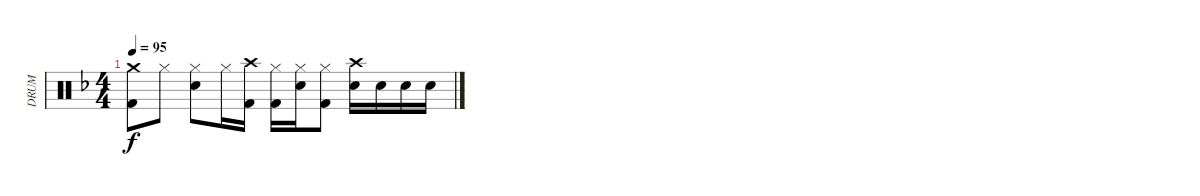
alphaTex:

\track ("DRUM" "DRUM") {instrument percussion}
\staff {score}
\articulation defaults
\ts (4 4)
\tempo 95
\clef neutral
\ks f
("Crash medium (hit)" "Kick (hit) 2").8{dy f} "Hi-Hat (closed)".8 ("Hi-Hat (closed)" "Electric Snare (hit)").8 "Hi-Hat (closed)".16 ("Crash high (hit)" "Kick (hit) 2").16 ("Hi-Hat (closed)" "Kick (hit) 2").16 ("Hi-Hat (closed)" "Electric Snare (hit)").16 ("Hi-Hat (closed)" "Kick (hit) 2").8 ("Crash high (hit)" "Electric Snare (hit)").16 "Electric Snare (hit)".16 "Electric Snare (hit)".16 "Electric Snare (hit)".16
